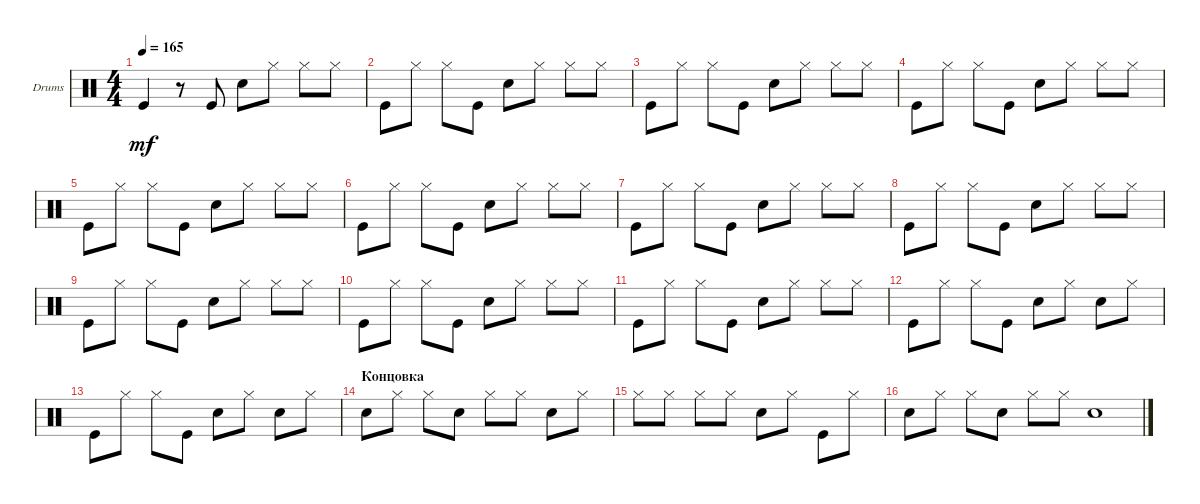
\bracketExtendMode groupsimilarinstruments
\firstSystemTrackNameOrientation horizontal
\otherSystemsTrackNameOrientation horizontal
\track ("Pen Tapping" "Drums") {instrument percussion}
\staff {score}
\articulation defaults
\ts (4 4)
\tempo 165
\clef neutral
\ks c "Kick (hit)".4{dy mf}
r.8 "Kick (hit)".8 "Snare (hit) 2".8 "Hi-Hat (closed)".8 "Hi-Hat (closed)".8 "Hi-Hat (closed)".8 |
"Kick (hit)".8 "Hi-Hat (closed)".8 "Hi-Hat (closed)".8 "Kick (hit)".8 "Snare (hit) 2".8 "Hi-Hat (closed)".8 "Hi-Hat (closed)".8 "Hi-Hat (closed)".8 |
"Kick (hit)".8 "Hi-Hat (closed)".8 "Hi-Hat (closed)".8 "Kick (hit)".8 "Snare (hit) 2".8 "Hi-Hat (closed)".8 "Hi-Hat (closed)".8 "Hi-Hat (closed)".8 |
"Kick (hit)".8 "Hi-Hat (closed)".8 "Hi-Hat (closed)".8 "Kick (hit)".8 "Snare (hit) 2".8 "Hi-Hat (closed)".8 "Hi-Hat (closed)".8 "Hi-Hat (closed)".8 |
"Kick (hit)".8 "Hi-Hat (closed)".8 "Hi-Hat (closed)".8 "Kick (hit)".8 "Snare (hit) 2".8 "Hi-Hat (closed)".8 "Hi-Hat (closed)".8 "Hi-Hat (closed)".8 |
"Kick (hit)".8 "Hi-Hat (closed)".8 "Hi-Hat (closed)".8 "Kick (hit)".8 "Snare (hit) 2".8 "Hi-Hat (closed)".8 "Hi-Hat (closed)".8 "Hi-Hat (closed)".8 |
"Kick (hit)".8 "Hi-Hat (closed)".8 "Hi-Hat (closed)".8 "Kick (hit)".8 "Snare (hit) 2".8 "Hi-Hat (closed)".8 "Hi-Hat (closed)".8 "Hi-Hat (closed)".8 |
"Kick (hit)".8 "Hi-Hat (closed)".8 "Hi-Hat (closed)".8 "Kick (hit)".8 "Snare (hit) 2".8 "Hi-Hat (closed)".8 "Hi-Hat (closed)".8 "Hi-Hat (closed)".8 |
"Kick (hit)".8 "Hi-Hat (closed)".8 "Hi-Hat (closed)".8 "Kick (hit)".8 "Snare (hit) 2".8 "Hi-Hat (closed)".8 "Hi-Hat (closed)".8 "Hi-Hat (closed)".8 |
"Kick (hit)".8 "Hi-Hat (closed)".8 "Hi-Hat (closed)".8 "Kick (hit)".8 "Snare (hit) 2".8 "Hi-Hat (closed)".8 "Hi-Hat (closed)".8 "Hi-Hat (closed)".8 |
"Kick (hit)".8 "Hi-Hat (closed)".8 "Hi-Hat (closed)".8 "Kick (hit)".8 "Snare (hit) 2".8 "Hi-Hat (closed)".8 "Hi-Hat (closed)".8 "Hi-Hat (closed)".8 |
"Kick (hit)".8 "Hi-Hat (closed)".8 "Hi-Hat (closed)".8 "Kick (hit)".8 "Snare (hit) 2".8 "Hi-Hat (closed)".8 "Snare (hit) 2".8 "Hi-Hat (closed)".8 |
"Kick (hit)".8 "Hi-Hat (closed)".8 "Hi-Hat (closed)".8 "Kick (hit)".8 "Snare (hit) 2".8 "Hi-Hat (closed)".8 "Snare (hit) 2".8 "Hi-Hat (closed)".8 |
\section ("" "Концовка")
"Snare (hit) 2".8 "Hi-Hat (closed)".8 "Hi-Hat (closed)".8 "Snare (hit) 2".8 "Hi-Hat (closed)".8 "Hi-Hat (closed)".8 "Snare (hit) 2".8 "Hi-Hat (closed)".8 |
"Hi-Hat (closed)".8 "Hi-Hat (closed)".8 "Hi-Hat (closed)".8 "Hi-Hat (closed)".8 "Snare (hit) 2".8 "Hi-Hat (closed)".8 "Kick (hit)".8 "Hi-Hat (closed)".8 |
"Snare (hit) 2".8 "Hi-Hat (closed)".8 "Hi-Hat (closed)".8 "Snare (hit) 2".8 "Hi-Hat (closed)".8 "Hi-Hat (closed)".8 "Snare (hit) 2".1
